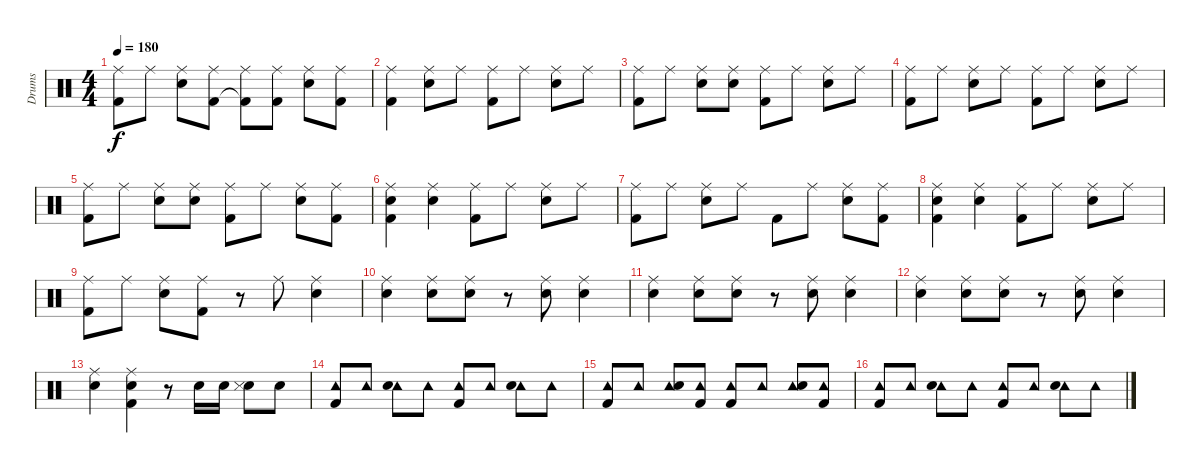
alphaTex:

\track ("Drums" "Drums") {instrument percussion}
\staff {score}
\articulation defaults
\ts (4 4)
\tempo 180
\clef neutral
\ks c
("Ride (middle)" "Kick (hit) 2").8{dy f} "Ride (middle)".8 ("Ride (middle)" "Snare (hit) 2").8 ("Ride (middle)" "Kick (hit) 2").8 ("Ride (middle)" "Kick (hit) 2"{t}).8 ("Ride (middle)" "Kick (hit) 2").8 ("Ride (middle)" "Snare (hit) 2").8 ("Ride (middle)" "Kick (hit) 2").8 |
("Ride (middle)" "Kick (hit) 2").4 ("Ride (middle)" "Snare (hit) 2").8 "Ride (middle)".8 ("Ride (middle)" "Kick (hit) 2").8 "Ride (middle)".8 ("Ride (middle)" "Snare (hit) 2").8 "Ride (middle)".8 |
("Ride (middle)" "Kick (hit) 2").8 "Ride (middle)".8 ("Ride (middle)" "Snare (hit) 2").8 ("Ride (middle)" "Snare (hit) 2").8 ("Ride (middle)" "Kick (hit) 2").8 "Ride (middle)".8 ("Ride (middle)" "Snare (hit) 2").8 "Ride (middle)".8 |
("Ride (middle)" "Kick (hit) 2").8 "Ride (middle)".8 ("Ride (middle)" "Snare (hit) 2").8 "Ride (middle)".8 ("Ride (middle)" "Kick (hit) 2").8 "Ride (middle)".8 ("Ride (middle)" "Snare (hit) 2").8 "Ride (middle)".8 |
("Ride (middle)" "Kick (hit) 2").8 "Ride (middle)".8 ("Ride (middle)" "Snare (hit) 2").8 ("Ride (middle)" "Snare (hit) 2").8 ("Ride (middle)" "Kick (hit) 2").8 "Ride (middle)".8 ("Ride (middle)" "Snare (hit) 2").8 ("Ride (middle)" "Kick (hit) 2").8 |
("Ride (middle)" "Snare (hit) 2" "Kick (hit) 2").4 ("Ride (middle)" "Snare (hit) 2").4 ("Ride (middle)" "Kick (hit) 2").8 "Ride (middle)".8 ("Ride (middle)" "Snare (hit) 2").8 "Ride (middle)".8 |
("Ride (middle)" "Kick (hit) 2").8 "Ride (middle)".8 ("Ride (middle)" "Snare (hit) 2").8 "Ride (middle)".8 "Kick (hit) 2".8 "Ride (middle)".8 ("Ride (middle)" "Snare (hit) 2").8 ("Ride (middle)" "Kick (hit) 2").8 |
("Ride (middle)" "Snare (hit) 2" "Kick (hit) 2").4 ("Ride (middle)" "Snare (hit) 2").4 ("Ride (middle)" "Kick (hit) 2").8 "Ride (middle)".8 ("Ride (middle)" "Snare (hit) 2").8 "Ride (middle)".8 |
("Ride (middle)" "Kick (hit) 2").8 "Ride (middle)".8 ("Ride (middle)" "Snare (hit) 2").8 ("Ride (middle)" "Kick (hit) 2").8 r.8 "Ride (middle)".8 ("Ride (middle)" "Snare (hit) 2").4 |
("Ride (middle)" "Snare (hit) 2").4 ("Ride (middle)" "Snare (hit) 2").8 ("Ride (middle)" "Snare (hit) 2").8 r.8 ("Ride (middle)" "Snare (hit) 2").8 ("Ride (middle)" "Snare (hit) 2").4 |
("Ride (middle)" "Snare (hit) 2").4 ("Ride (middle)" "Snare (hit) 2").8 ("Ride (middle)" "Snare (hit) 2").8 r.8 ("Ride (middle)" "Snare (hit) 2").8 ("Ride (middle)" "Snare (hit) 2").4 |
("Ride (middle)" "Snare (hit) 2").4 ("Ride (middle)" "Snare (hit) 2").8 ("Ride (middle)" "Snare (hit) 2").8 r.8 ("Ride (middle)" "Snare (hit) 2").8 ("Ride (middle)" "Snare (hit) 2").4 |
("Ride (middle)" "Snare (hit) 2").4 ("Ride (middle)" "Snare (hit) 2" "Kick (hit) 2").4 r.8 "Snare (hit) 2".16 "Snare (hit) 2".16 ("Snare (hit) 2" "Snare (side stick) 3").8 "Snare (hit) 2".8 |
("Tambourine (hit)" "Kick (hit) 2").8 "Tambourine (hit)".8 ("Tambourine (hit)" "Snare (hit) 2").8 "Tambourine (hit)".8 ("Tambourine (hit)" "Kick (hit) 2").8 "Tambourine (hit)".8 ("Tambourine (hit)" "Snare (hit) 2").8 "Tambourine (hit)".8 |
("Tambourine (hit)" "Kick (hit) 2").8 "Tambourine (hit)".8 ("Tambourine (hit)" "Snare (hit) 2").8 ("Tambourine (hit)" "Kick (hit) 2").8 ("Tambourine (hit)" "Kick (hit) 2").8 "Tambourine (hit)".8 ("Tambourine (hit)" "Snare (hit) 2").8 ("Tambourine (hit)" "Kick (hit) 2").8 |
("Tambourine (hit)" "Kick (hit) 2").8 "Tambourine (hit)".8 ("Tambourine (hit)" "Snare (hit) 2").8 "Tambourine (hit)".8 ("Tambourine (hit)" "Kick (hit) 2").8 "Tambourine (hit)".8 ("Tambourine (hit)" "Snare (hit) 2").8 "Tambourine (hit)".8
